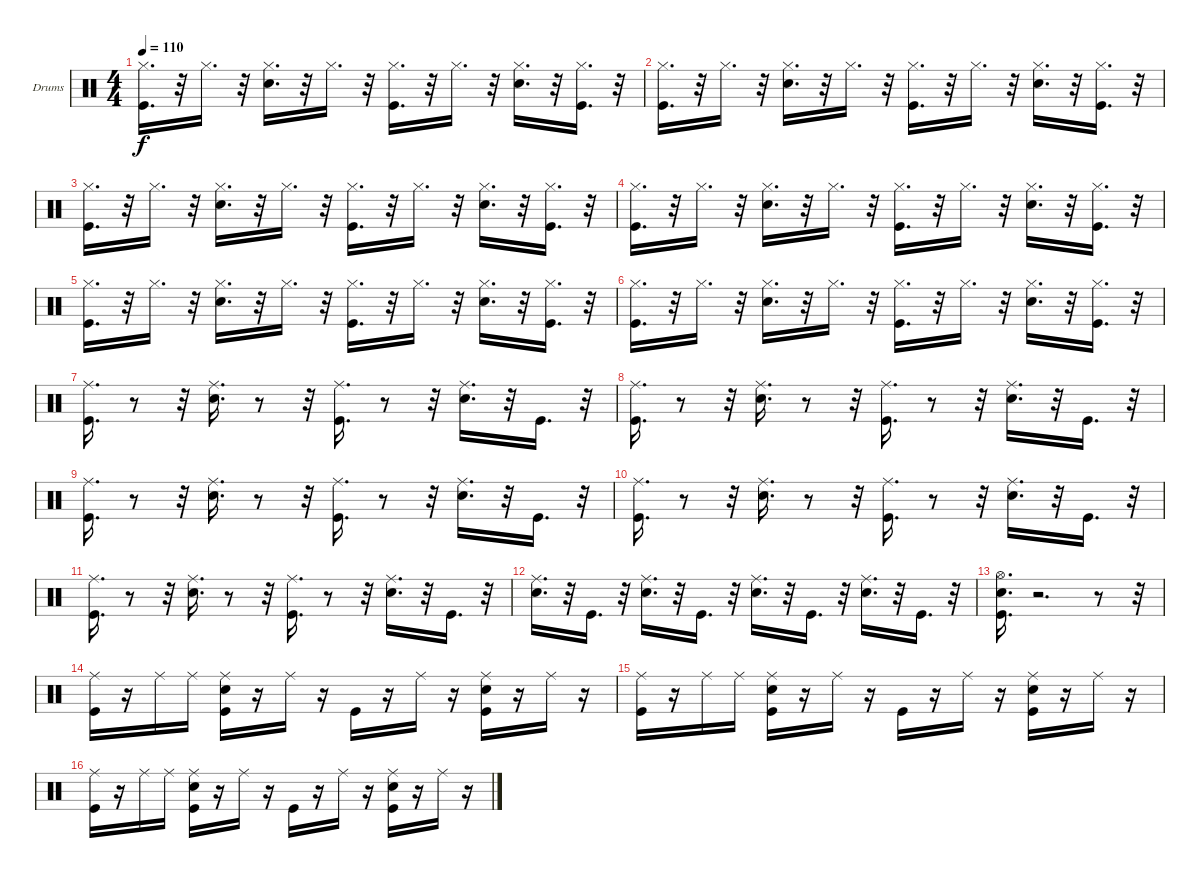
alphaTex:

\bracketExtendMode groupsimilarinstruments
\firstSystemTrackNameOrientation horizontal
\otherSystemsTrackNameOrientation horizontal
\track ("Drumkit" "Drums") {instrument percussion}
\staff {score}
\articulation defaults
\ts (4 4)
\tempo 110
\clef neutral
\ks c
("Hi-Hat (closed)" "Kick (hit)").16{d dy f} r.32 "Hi-Hat (closed)".16{d} r.32 ("Snare (hit) 2" "Hi-Hat (closed)").16{d} r.32 "Hi-Hat (closed)".16{d} r.32 ("Hi-Hat (closed)" "Kick (hit)").16{d} r.32 "Hi-Hat (closed)".16{d} r.32 ("Snare (hit) 2" "Hi-Hat (closed)").16{d} r.32 ("Kick (hit)" "Hi-Hat (closed)").16{d} r.32 |
("Hi-Hat (closed)" "Kick (hit)").16{d} r.32 "Hi-Hat (closed)".16{d} r.32 ("Snare (hit) 2" "Hi-Hat (closed)").16{d} r.32 "Hi-Hat (closed)".16{d} r.32 ("Hi-Hat (closed)" "Kick (hit)").16{d} r.32 "Hi-Hat (closed)".16{d} r.32 ("Snare (hit) 2" "Hi-Hat (closed)").16{d} r.32 ("Kick (hit)" "Hi-Hat (closed)").16{d} r.32 |
("Hi-Hat (closed)" "Kick (hit)").16{d} r.32 "Hi-Hat (closed)".16{d} r.32 ("Snare (hit) 2" "Hi-Hat (closed)").16{d} r.32 "Hi-Hat (closed)".16{d} r.32 ("Hi-Hat (closed)" "Kick (hit)").16{d} r.32 "Hi-Hat (closed)".16{d} r.32 ("Snare (hit) 2" "Hi-Hat (closed)").16{d} r.32 ("Kick (hit)" "Hi-Hat (closed)").16{d} r.32 |
("Hi-Hat (closed)" "Kick (hit)").16{d} r.32 "Hi-Hat (closed)".16{d} r.32 ("Snare (hit) 2" "Hi-Hat (closed)").16{d} r.32 "Hi-Hat (closed)".16{d} r.32 ("Hi-Hat (closed)" "Kick (hit)").16{d} r.32 "Hi-Hat (closed)".16{d} r.32 ("Snare (hit) 2" "Hi-Hat (closed)").16{d} r.32 ("Kick (hit)" "Hi-Hat (closed)").16{d} r.32 |
("Hi-Hat (closed)" "Kick (hit)").16{d} r.32 "Hi-Hat (closed)".16{d} r.32 ("Snare (hit) 2" "Hi-Hat (closed)").16{d} r.32 "Hi-Hat (closed)".16{d} r.32 ("Hi-Hat (closed)" "Kick (hit)").16{d} r.32 "Hi-Hat (closed)".16{d} r.32 ("Snare (hit) 2" "Hi-Hat (closed)").16{d} r.32 ("Kick (hit)" "Hi-Hat (closed)").16{d} r.32 |
("Hi-Hat (closed)" "Kick (hit)").16{d} r.32 "Hi-Hat (closed)".16{d} r.32 ("Snare (hit) 2" "Hi-Hat (closed)").16{d} r.32 "Hi-Hat (closed)".16{d} r.32 ("Hi-Hat (closed)" "Kick (hit)").16{d} r.32 "Hi-Hat (closed)".16{d} r.32 ("Snare (hit) 2" "Hi-Hat (closed)").16{d} r.32 ("Kick (hit)" "Hi-Hat (closed)").16{d} r.32 |
("Ride (middle)" "Kick (hit)").16{d} r.8 r.32 ("Ride (middle)" "Snare (hit) 2").16{d} r.8 r.32 ("Ride (middle)" "Kick (hit)").16{d} r.8 r.32 ("Ride (middle)" "Snare (hit) 2").16{d} r.32 "Kick (hit)".16{d} r.32 |
("Ride (middle)" "Kick (hit)").16{d} r.8 r.32 ("Ride (middle)" "Snare (hit) 2").16{d} r.8 r.32 ("Ride (middle)" "Kick (hit)").16{d} r.8 r.32 ("Ride (middle)" "Snare (hit) 2").16{d} r.32 "Kick (hit)".16{d} r.32 |
("Ride (middle)" "Kick (hit)").16{d} r.8 r.32 ("Ride (middle)" "Snare (hit) 2").16{d} r.8 r.32 ("Ride (middle)" "Kick (hit)").16{d} r.8 r.32 ("Ride (middle)" "Snare (hit) 2").16{d} r.32 "Kick (hit)".16{d} r.32 |
("Ride (middle)" "Kick (hit)").16{d} r.8 r.32 ("Ride (middle)" "Snare (hit) 2").16{d} r.8 r.32 ("Ride (middle)" "Kick (hit)").16{d} r.8 r.32 ("Ride (middle)" "Snare (hit) 2").16{d} r.32 "Kick (hit)".16{d} r.32 |
("Ride (middle)" "Kick (hit)").16{d} r.8 r.32 ("Ride (middle)" "Snare (hit) 2").16{d} r.8 r.32 ("Ride (middle)" "Kick (hit)").16{d} r.8 r.32 ("Ride (middle)" "Snare (hit) 2").16{d} r.32 "Kick (hit)".16{d} r.32 |
("Snare (hit) 2" "Ride (middle)").16{d} r.32 "Kick (hit)".16{d} r.32 ("Ride (middle)" "Snare (hit) 2").16{d} r.32 "Kick (hit)".16{d} r.32 ("Snare (hit) 2" "Ride (middle)").16{d} r.32 "Kick (hit)".16{d} r.32 ("Ride (middle)" "Snare (hit) 2").16{d} r.32 "Kick (hit)".16{d} r.32 |
("Hi-Hat (open)" "Snare (hit) 2" "Kick (hit)").16{d} r.2{d} r.8 r.32 |
("Kick (hit)" "Ride (middle)").16 r.16 "Ride (middle)".16 "Ride (middle)".16 ("Snare (hit) 2" "Ride (middle)" "Kick (hit)").16 r.16 "Ride (middle)".16 r.16 "Kick (hit)".16 r.16 "Ride (middle)".16 r.16 ("Snare (hit) 2" "Ride (middle)" "Kick (hit)").16 r.16 "Ride (middle)".16 r.16 |
("Kick (hit)" "Ride (middle)").16 r.16 "Ride (middle)".16 "Ride (middle)".16 ("Snare (hit) 2" "Ride (middle)" "Kick (hit)").16 r.16 "Ride (middle)".16 r.16 "Kick (hit)".16 r.16 "Ride (middle)".16 r.16 ("Snare (hit) 2" "Ride (middle)" "Kick (hit)").16 r.16 "Ride (middle)".16 r.16 |
("Kick (hit)" "Ride (middle)").16 r.16 "Ride (middle)".16 "Ride (middle)".16 ("Snare (hit) 2" "Ride (middle)" "Kick (hit)").16 r.16 "Ride (middle)".16 r.16 "Kick (hit)".16 r.16 "Ride (middle)".16 r.16 ("Snare (hit) 2" "Ride (middle)" "Kick (hit)").16 r.16 "Ride (middle)".16 r.16
